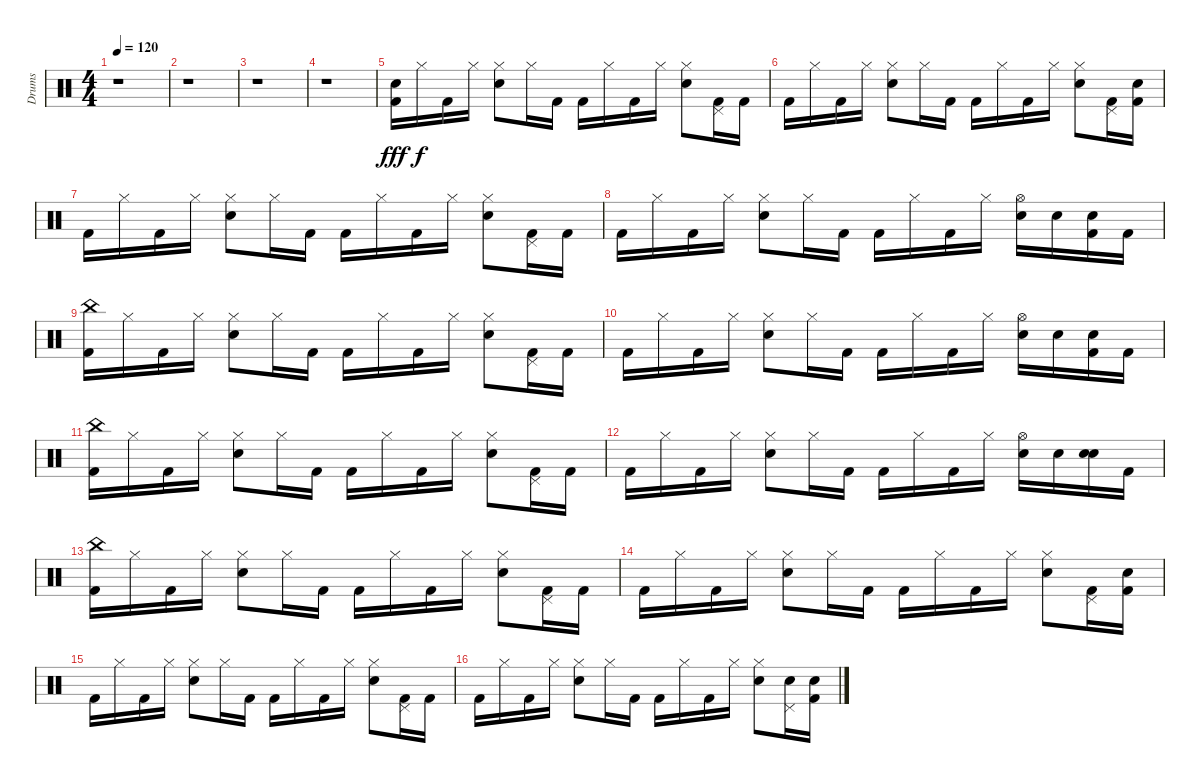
\track ("Drums" "Drums") {instrument percussion}
\staff {score}
\articulation defaults
\ts (4 4)
\tempo 120
\clef neutral
\ks c
r.1{dy f} |
r.1 |
r.1 |
r.1 |
("Snare (hit) 2" "Kick (hit) 2").16{dy fff} "Hi-Hat (closed)".16{dy f} "Kick (hit) 2".16 "Hi-Hat (closed)".16 ("Hi-Hat (closed)" "Snare (hit) 2").8 "Hi-Hat (closed)".16 "Kick (hit) 2".16 "Kick (hit) 2".16 "Hi-Hat (closed)".16 "Kick (hit) 2".16 "Hi-Hat (closed)".16 ("Hi-Hat (closed)" "Snare (hit) 2").8 ("Pedal Hi-Hat (hit)" "Kick (hit) 2").16 "Kick (hit) 2".16 |
"Kick (hit) 2".16 "Hi-Hat (closed)".16 "Kick (hit) 2".16 "Hi-Hat (closed)".16 ("Hi-Hat (closed)" "Snare (hit) 2").8 "Hi-Hat (closed)".16 "Kick (hit) 2".16 "Kick (hit) 2".16 "Hi-Hat (closed)".16 "Kick (hit) 2".16 "Hi-Hat (closed)".16 ("Hi-Hat (closed)" "Snare (hit) 2").8 ("Pedal Hi-Hat (hit)" "Kick (hit) 2").16 ("Snare (hit) 2" "Kick (hit) 2").16 |
"Kick (hit) 2".16 "Hi-Hat (closed)".16 "Kick (hit) 2".16 "Hi-Hat (closed)".16 ("Hi-Hat (closed)" "Snare (hit) 2").8 "Hi-Hat (closed)".16 "Kick (hit) 2".16 "Kick (hit) 2".16 "Hi-Hat (closed)".16 "Kick (hit) 2".16 "Hi-Hat (closed)".16 ("Hi-Hat (closed)" "Snare (hit) 2").8 ("Pedal Hi-Hat (hit)" "Kick (hit) 2").16 "Kick (hit) 2".16 |
"Kick (hit) 2".16 "Hi-Hat (closed)".16 "Kick (hit) 2".16 "Hi-Hat (closed)".16 ("Hi-Hat (closed)" "Snare (hit) 2").8 "Hi-Hat (closed)".16 "Kick (hit) 2".16 "Kick (hit) 2".16 "Hi-Hat (closed)".16 "Kick (hit) 2".16 "Hi-Hat (closed)".16 ("Hi-Hat (open)" "Electric Snare (hit)").16 "Electric Snare (hit)".16 ("Snare (hit) 2" "Kick (hit) 2").16 "Kick (hit) 2".16 |
("China (hit)" "Kick (hit) 2").16 "Hi-Hat (closed)".16 "Kick (hit) 2".16 "Hi-Hat (closed)".16 ("Hi-Hat (closed)" "Snare (hit) 2").8 "Hi-Hat (closed)".16 "Kick (hit) 2".16 "Kick (hit) 2".16 "Hi-Hat (closed)".16 "Kick (hit) 2".16 "Hi-Hat (closed)".16 ("Hi-Hat (closed)" "Snare (hit) 2").8 ("Pedal Hi-Hat (hit)" "Kick (hit) 2").16 "Kick (hit) 2".16 |
"Kick (hit) 2".16 "Hi-Hat (closed)".16 "Kick (hit) 2".16 "Hi-Hat (closed)".16 ("Hi-Hat (closed)" "Snare (hit) 2").8 "Hi-Hat (closed)".16 "Kick (hit) 2".16 "Kick (hit) 2".16 "Hi-Hat (closed)".16 "Kick (hit) 2".16 "Hi-Hat (closed)".16 ("Hi-Hat (open)" "Electric Snare (hit)").16 "Electric Snare (hit)".16 ("Snare (hit) 2" "Kick (hit) 2").16 "Kick (hit) 2".16 |
("China (hit)" "Kick (hit) 2").16 "Hi-Hat (closed)".16 "Kick (hit) 2".16 "Hi-Hat (closed)".16 ("Hi-Hat (closed)" "Snare (hit) 2").8 "Hi-Hat (closed)".16 "Kick (hit) 2".16 "Kick (hit) 2".16 "Hi-Hat (closed)".16 "Kick (hit) 2".16 "Hi-Hat (closed)".16 ("Hi-Hat (closed)" "Snare (hit) 2").8 ("Pedal Hi-Hat (hit)" "Kick (hit) 2").16 "Kick (hit) 2".16 |
"Kick (hit) 2".16 "Hi-Hat (closed)".16 "Kick (hit) 2".16 "Hi-Hat (closed)".16 ("Hi-Hat (closed)" "Snare (hit) 2").8 "Hi-Hat (closed)".16 "Kick (hit) 2".16 "Kick (hit) 2".16 "Hi-Hat (closed)".16 "Kick (hit) 2".16 "Hi-Hat (closed)".16 ("Hi-Hat (open)" "Electric Snare (hit)").16 "Electric Snare (hit)".16 ("Electric Snare (hit)" "Snare (hit) 2").16 "Kick (hit) 2".16 |
("China (hit)" "Kick (hit) 2").16 "Hi-Hat (closed)".16 "Kick (hit) 2".16 "Hi-Hat (closed)".16 ("Hi-Hat (closed)" "Snare (hit) 2").8 "Hi-Hat (closed)".16 "Kick (hit) 2".16 "Kick (hit) 2".16 "Hi-Hat (closed)".16 "Kick (hit) 2".16 "Hi-Hat (closed)".16 ("Hi-Hat (closed)" "Snare (hit) 2").8 ("Pedal Hi-Hat (hit)" "Kick (hit) 2").16 "Kick (hit) 2".16 |
"Kick (hit) 2".16 "Hi-Hat (closed)".16 "Kick (hit) 2".16 "Hi-Hat (closed)".16 ("Hi-Hat (closed)" "Snare (hit) 2").8 "Hi-Hat (closed)".16 "Kick (hit) 2".16 "Kick (hit) 2".16 "Hi-Hat (closed)".16 "Kick (hit) 2".16 "Hi-Hat (closed)".16 ("Hi-Hat (closed)" "Snare (hit) 2").8 ("Pedal Hi-Hat (hit)" "Kick (hit) 2").16 ("Snare (hit) 2" "Kick (hit) 2").16 |
"Kick (hit) 2".16 "Hi-Hat (closed)".16 "Kick (hit) 2".16 "Hi-Hat (closed)".16 ("Hi-Hat (closed)" "Snare (hit) 2").8 "Hi-Hat (closed)".16 "Kick (hit) 2".16 "Kick (hit) 2".16 "Hi-Hat (closed)".16 "Kick (hit) 2".16 "Hi-Hat (closed)".16 ("Hi-Hat (closed)" "Snare (hit) 2").8 ("Pedal Hi-Hat (hit)" "Kick (hit) 2").16 "Kick (hit) 2".16 |
"Kick (hit) 2".16 "Hi-Hat (closed)".16 "Kick (hit) 2".16 "Hi-Hat (closed)".16 ("Hi-Hat (closed)" "Snare (hit) 2").8 "Hi-Hat (closed)".16 "Kick (hit) 2".16 "Kick (hit) 2".16 "Hi-Hat (closed)".16 "Kick (hit) 2".16 "Hi-Hat (closed)".16 ("Hi-Hat (closed)" "Snare (hit) 2").8 ("Electric Snare (hit)" "Pedal Hi-Hat (hit)").16 ("Electric Snare (hit)" "Kick (hit) 2").16
